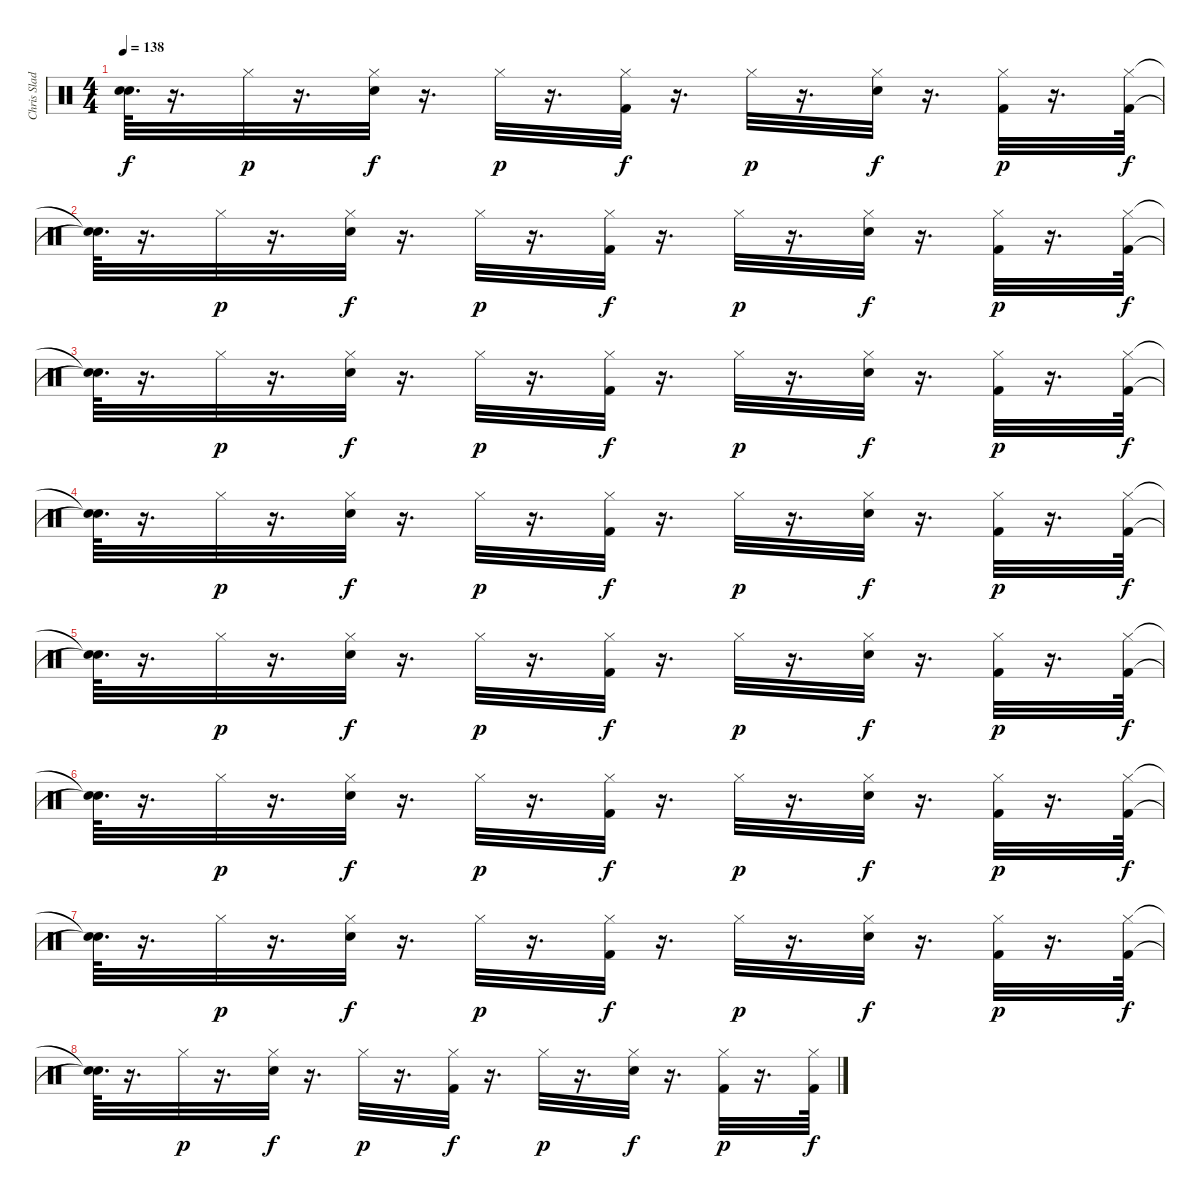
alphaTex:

\track ("Chris Slade" "Chris Slad") {instrument percussion}
\staff {score}
\articulation defaults
\ts (4 4)
\tempo 138
\clef neutral
\ks c
("Snare (hit)"{t} "Snare (hit)"{t}).64{d dy f} r.16{d} "Hi-Hat (closed)".32{dy p} r.16{d} ("Hi-Hat (closed)" "Electric Snare (hit)").32{dy f} r.16{d} "Hi-Hat (closed)".32{dy p} r.16{d} ("Hi-Hat (closed)" "Kick (hit) 2").32{dy f} r.16{d} "Hi-Hat (closed)".32{dy p} r.16{d} ("Hi-Hat (closed)" "Electric Snare (hit)").32{dy f} r.16{d} ("Hi-Hat (closed)" "Kick (hit) 2").32{dy p} r.16{d} ("Hi-Hat (closed)" "Kick (hit) 2").64{dy f} |
("Snare (hit)"{t} "Snare (hit)"{t}).64{d} r.16{d} "Hi-Hat (closed)".32{dy p} r.16{d} ("Hi-Hat (closed)" "Electric Snare (hit)").32{dy f} r.16{d} "Hi-Hat (closed)".32{dy p} r.16{d} ("Hi-Hat (closed)" "Kick (hit) 2").32{dy f} r.16{d} "Hi-Hat (closed)".32{dy p} r.16{d} ("Hi-Hat (closed)" "Electric Snare (hit)").32{dy f} r.16{d} ("Hi-Hat (closed)" "Kick (hit) 2").32{dy p} r.16{d} ("Hi-Hat (closed)" "Kick (hit) 2").64{dy f} |
("Snare (hit)"{t} "Snare (hit)"{t}).64{d} r.16{d} "Hi-Hat (closed)".32{dy p} r.16{d} ("Hi-Hat (closed)" "Electric Snare (hit)").32{dy f} r.16{d} "Hi-Hat (closed)".32{dy p} r.16{d} ("Hi-Hat (closed)" "Kick (hit) 2").32{dy f} r.16{d} "Hi-Hat (closed)".32{dy p} r.16{d} ("Hi-Hat (closed)" "Electric Snare (hit)").32{dy f} r.16{d} ("Hi-Hat (closed)" "Kick (hit) 2").32{dy p} r.16{d} ("Hi-Hat (closed)" "Kick (hit) 2").64{dy f} |
("Snare (hit)"{t} "Snare (hit)"{t}).64{d} r.16{d} "Hi-Hat (closed)".32{dy p} r.16{d} ("Hi-Hat (closed)" "Electric Snare (hit)").32{dy f} r.16{d} "Hi-Hat (closed)".32{dy p} r.16{d} ("Hi-Hat (closed)" "Kick (hit) 2").32{dy f} r.16{d} "Hi-Hat (closed)".32{dy p} r.16{d} ("Hi-Hat (closed)" "Electric Snare (hit)").32{dy f} r.16{d} ("Hi-Hat (closed)" "Kick (hit) 2").32{dy p} r.16{d} ("Hi-Hat (closed)" "Kick (hit) 2").64{dy f} |
("Snare (hit)"{t} "Snare (hit)"{t}).64{d} r.16{d} "Hi-Hat (closed)".32{dy p} r.16{d} ("Hi-Hat (closed)" "Electric Snare (hit)").32{dy f} r.16{d} "Hi-Hat (closed)".32{dy p} r.16{d} ("Hi-Hat (closed)" "Kick (hit) 2").32{dy f} r.16{d} "Hi-Hat (closed)".32{dy p} r.16{d} ("Hi-Hat (closed)" "Electric Snare (hit)").32{dy f} r.16{d} ("Hi-Hat (closed)" "Kick (hit) 2").32{dy p} r.16{d} ("Hi-Hat (closed)" "Kick (hit) 2").64{dy f} |
("Snare (hit)"{t} "Snare (hit)"{t}).64{d} r.16{d} "Hi-Hat (closed)".32{dy p} r.16{d} ("Hi-Hat (closed)" "Electric Snare (hit)").32{dy f} r.16{d} "Hi-Hat (closed)".32{dy p} r.16{d} ("Hi-Hat (closed)" "Kick (hit) 2").32{dy f} r.16{d} "Hi-Hat (closed)".32{dy p} r.16{d} ("Hi-Hat (closed)" "Electric Snare (hit)").32{dy f} r.16{d} ("Hi-Hat (closed)" "Kick (hit) 2").32{dy p} r.16{d} ("Hi-Hat (closed)" "Kick (hit) 2").64{dy f} |
("Snare (hit)"{t} "Snare (hit)"{t}).64{d} r.16{d} "Hi-Hat (closed)".32{dy p} r.16{d} ("Hi-Hat (closed)" "Electric Snare (hit)").32{dy f} r.16{d} "Hi-Hat (closed)".32{dy p} r.16{d} ("Hi-Hat (closed)" "Kick (hit) 2").32{dy f} r.16{d} "Hi-Hat (closed)".32{dy p} r.16{d} ("Hi-Hat (closed)" "Electric Snare (hit)").32{dy f} r.16{d} ("Hi-Hat (closed)" "Kick (hit) 2").32{dy p} r.16{d} ("Hi-Hat (closed)" "Kick (hit) 2").64{dy f} |
("Snare (hit)"{t} "Snare (hit)"{t}).64{d} r.16{d} "Hi-Hat (closed)".32{dy p} r.16{d} ("Hi-Hat (closed)" "Electric Snare (hit)").32{dy f} r.16{d} "Hi-Hat (closed)".32{dy p} r.16{d} ("Hi-Hat (closed)" "Kick (hit) 2").32{dy f} r.16{d} "Hi-Hat (closed)".32{dy p} r.16{d} ("Hi-Hat (closed)" "Electric Snare (hit)").32{dy f} r.16{d} ("Hi-Hat (closed)" "Kick (hit) 2").32{dy p} r.16{d} ("Hi-Hat (closed)" "Kick (hit) 2").64{dy f}
